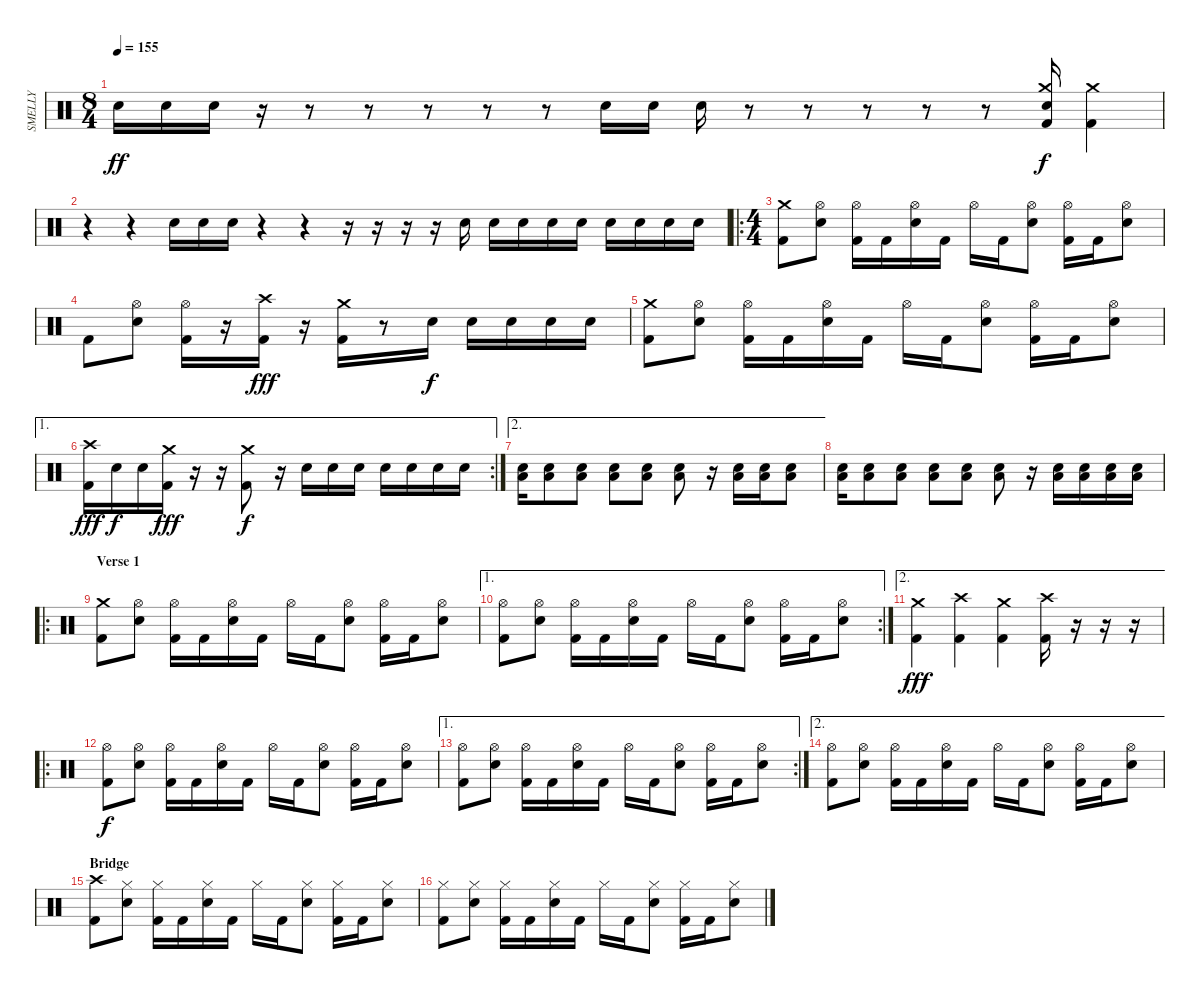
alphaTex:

\track ("SMELLY" "SMELLY") {instrument percussion}
\staff {score}
\articulation defaults
\ts (8 4)
\tempo 155
\clef neutral
\ks c "Electric Snare (hit)".16{dy ff} "Electric Snare (hit)".16 "Electric Snare (hit)".16
r.16 r.8 r.8 r.8 r.8 r.8 "Electric Snare (hit)".16 "Electric Snare (hit)".16 "Electric Snare (hit)".16 r.8 r.8 r.8 r.8 r.8 ("Crash medium (hit)" "Kick (hit) 2" "Electric Snare (hit)").16{dy f} ("Crash medium (hit)" "Kick (hit) 2").4 |
r.4 r.4 "Electric Snare (hit)".16 "Electric Snare (hit)".16 "Electric Snare (hit)".16 r.4 r.4 r.16 r.16 r.16 r.16 "Electric Snare (hit)".16 "Electric Snare (hit)".16 "Electric Snare (hit)".16 "Electric Snare (hit)".16 "Electric Snare (hit)".16 "Electric Snare (hit)".16 "Electric Snare (hit)".16 "Electric Snare (hit)".16 "Electric Snare (hit)".16 |
\ro
\ts (4 4)
("Crash medium (hit)" "Kick (hit) 2").8 ("Hi-Hat (open)" "Electric Snare (hit)").8 ("Hi-Hat (open)" "Kick (hit) 2").16 "Kick (hit) 2".16 ("Hi-Hat (open)" "Electric Snare (hit)").16 "Kick (hit) 2".16 "Hi-Hat (open)".16 "Kick (hit) 2".16 ("Hi-Hat (open)" "Electric Snare (hit)").8 ("Hi-Hat (open)" "Kick (hit) 2").16 "Kick (hit) 2".16 ("Hi-Hat (open)" "Electric Snare (hit)").8 |
"Kick (hit) 2".8 ("Hi-Hat (open)" "Electric Snare (hit)").8 ("Hi-Hat (open)" "Kick (hit) 2").16 r.16 ("Crash high (hit)" "Kick (hit) 2").16{dy fff} r.16 ("Crash medium (hit)" "Kick (hit) 2").16 r.8 "Electric Snare (hit)".16{dy f} "Electric Snare (hit)".16 "Electric Snare (hit)".16 "Electric Snare (hit)".16 "Electric Snare (hit)".16 |
("Crash medium (hit)" "Kick (hit) 2").8 ("Hi-Hat (open)" "Electric Snare (hit)").8 ("Hi-Hat (open)" "Kick (hit) 2").16 "Kick (hit) 2".16 ("Hi-Hat (open)" "Electric Snare (hit)").16 "Kick (hit) 2".16 "Hi-Hat (open)".16 "Kick (hit) 2".16 ("Hi-Hat (open)" "Electric Snare (hit)").8 ("Hi-Hat (open)" "Kick (hit) 2").16 "Kick (hit) 2".16 ("Hi-Hat (open)" "Electric Snare (hit)").8 |
\ae 1
\rc 2
("Crash high (hit)" "Kick (hit) 2").16{dy fff} "Electric Snare (hit)".16{dy f} "Electric Snare (hit)".16 ("Crash medium (hit)" "Kick (hit) 2").16{dy fff} r.16 r.16 ("Crash medium (hit)" "Kick (hit) 2").8{dy f} r.16 "Electric Snare (hit)".16 "Electric Snare (hit)".16 "Electric Snare (hit)".16 "Electric Snare (hit)".16 "Electric Snare (hit)".16 "Electric Snare (hit)".16 "Electric Snare (hit)".16 |
\ae 2
("Low Floor Tom (hit)" "Electric Snare (hit)").16 ("Low Floor Tom (hit)" "Electric Snare (hit)").8 ("Low Floor Tom (hit)" "Electric Snare (hit)").8 ("Low Floor Tom (hit)" "Electric Snare (hit)").8 ("Low Floor Tom (hit)" "Electric Snare (hit)").8 ("Low Floor Tom (hit)" "Electric Snare (hit)").8 r.16 ("Low Floor Tom (hit)" "Electric Snare (hit)").16 ("Low Floor Tom (hit)" "Electric Snare (hit)").16 ("Low Floor Tom (hit)" "Electric Snare (hit)").8 |
("Low Floor Tom (hit)" "Electric Snare (hit)").16 ("Low Floor Tom (hit)" "Electric Snare (hit)").8 ("Low Floor Tom (hit)" "Electric Snare (hit)").8 ("Low Floor Tom (hit)" "Electric Snare (hit)").8 ("Low Floor Tom (hit)" "Electric Snare (hit)").8 ("Low Floor Tom (hit)" "Electric Snare (hit)").8 r.16 ("Low Floor Tom (hit)" "Electric Snare (hit)").16 ("Low Floor Tom (hit)" "Electric Snare (hit)").16 ("Low Floor Tom (hit)" "Electric Snare (hit)").16 ("Low Floor Tom (hit)" "Electric Snare (hit)").16 |
\ro
\section ("" "Verse 1")
("Crash medium (hit)" "Kick (hit) 2").8 ("Hi-Hat (open)" "Electric Snare (hit)").8 ("Hi-Hat (open)" "Kick (hit) 2").16 "Kick (hit) 2".16 ("Hi-Hat (open)" "Electric Snare (hit)").16 "Kick (hit) 2".16 "Hi-Hat (open)".16 "Kick (hit) 2".16 ("Hi-Hat (open)" "Electric Snare (hit)").8 ("Hi-Hat (open)" "Kick (hit) 2").16 "Kick (hit) 2".16 ("Hi-Hat (open)" "Electric Snare (hit)").8 |
\ae 1
\rc 2
("Hi-Hat (open)" "Kick (hit) 2").8 ("Hi-Hat (open)" "Electric Snare (hit)").8 ("Hi-Hat (open)" "Kick (hit) 2").16 "Kick (hit) 2".16 ("Hi-Hat (open)" "Electric Snare (hit)").16 "Kick (hit) 2".16 "Hi-Hat (open)".16 "Kick (hit) 2".16 ("Hi-Hat (open)" "Electric Snare (hit)").8 ("Hi-Hat (open)" "Kick (hit) 2").16 "Kick (hit) 2".16 ("Hi-Hat (open)" "Electric Snare (hit)").8 |
\ae 2
("Crash medium (hit)" "Kick (hit) 2").4{dy fff} ("Crash high (hit)" "Kick (hit) 2").4 ("Crash medium (hit)" "Kick (hit) 2").4 ("Crash high (hit)" "Kick (hit) 2").16 r.16 r.16 r.16 |
\ro
("Hi-Hat (open)" "Kick (hit) 2").8{dy f} ("Hi-Hat (open)" "Electric Snare (hit)").8 ("Hi-Hat (open)" "Kick (hit) 2").16 "Kick (hit) 2".16 ("Hi-Hat (open)" "Electric Snare (hit)").16 "Kick (hit) 2".16 "Hi-Hat (open)".16 "Kick (hit) 2".16 ("Hi-Hat (open)" "Electric Snare (hit)").8 ("Hi-Hat (open)" "Kick (hit) 2").16 "Kick (hit) 2".16 ("Hi-Hat (open)" "Electric Snare (hit)").8 |
\ae 1
\rc 2
("Hi-Hat (open)" "Kick (hit) 2").8 ("Hi-Hat (open)" "Electric Snare (hit)").8 ("Hi-Hat (open)" "Kick (hit) 2").16 "Kick (hit) 2".16 ("Hi-Hat (open)" "Electric Snare (hit)").16 "Kick (hit) 2".16 "Hi-Hat (open)".16 "Kick (hit) 2".16 ("Hi-Hat (open)" "Electric Snare (hit)").8 ("Hi-Hat (open)" "Kick (hit) 2").16 "Kick (hit) 2".16 ("Hi-Hat (open)" "Electric Snare (hit)").8 |
\ae 2
("Hi-Hat (open)" "Kick (hit) 2").8 ("Hi-Hat (open)" "Electric Snare (hit)").8 ("Hi-Hat (open)" "Kick (hit) 2").16 "Kick (hit) 2".16 ("Hi-Hat (open)" "Electric Snare (hit)").16 "Kick (hit) 2".16 "Hi-Hat (open)".16 "Kick (hit) 2".16 ("Hi-Hat (open)" "Electric Snare (hit)").8 ("Hi-Hat (open)" "Kick (hit) 2").16 "Kick (hit) 2".16 ("Hi-Hat (open)" "Electric Snare (hit)").8 |
\section ("" "Bridge")
("Crash high (hit)" "Kick (hit) 2").8 ("Hi-Hat (closed)" "Electric Snare (hit)").8 ("Hi-Hat (closed)" "Kick (hit) 2").16 "Kick (hit) 2".16 ("Hi-Hat (closed)" "Electric Snare (hit)").16 "Kick (hit) 2".16 "Hi-Hat (closed)".16 "Kick (hit) 2".16 ("Hi-Hat (closed)" "Electric Snare (hit)").8 ("Hi-Hat (closed)" "Kick (hit) 2").16 "Kick (hit) 2".16 ("Hi-Hat (closed)" "Electric Snare (hit)").8 |
("Hi-Hat (closed)" "Kick (hit) 2").8 ("Hi-Hat (closed)" "Electric Snare (hit)").8 ("Hi-Hat (closed)" "Kick (hit) 2").16 "Kick (hit) 2".16 ("Hi-Hat (closed)" "Electric Snare (hit)").16 "Kick (hit) 2".16 "Hi-Hat (closed)".16 "Kick (hit) 2".16 ("Hi-Hat (closed)" "Electric Snare (hit)").8 ("Hi-Hat (closed)" "Kick (hit) 2").16 "Kick (hit) 2".16 ("Hi-Hat (closed)" "Electric Snare (hit)").8
